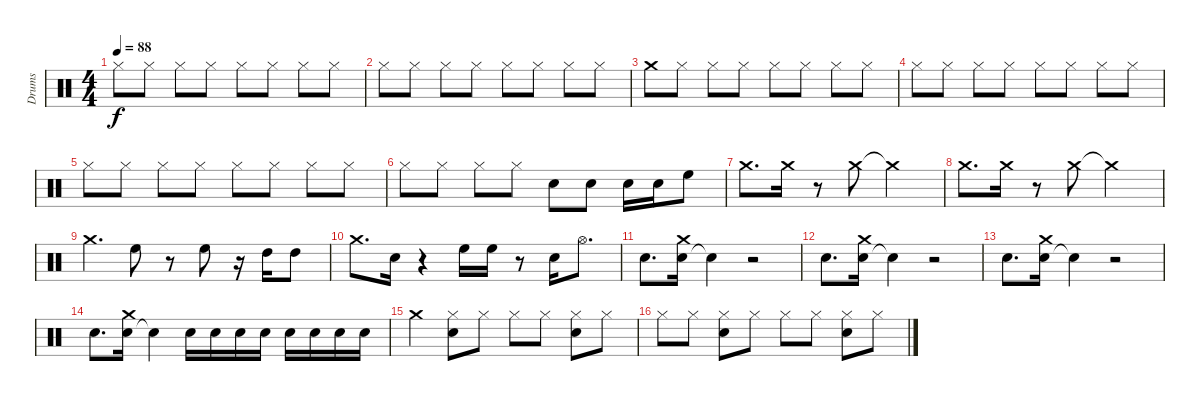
\track ("Drums" "Drums") {instrument percussion}
\staff {score}
\articulation defaults
\ts (4 4)
\tempo 88
\clef neutral
\ks c "Hi-Hat (closed)".8{dy f} "Hi-Hat (closed)".8 "Hi-Hat (closed)".8 "Hi-Hat (closed)".8 "Hi-Hat (closed)".8 "Hi-Hat (closed)".8 "Hi-Hat (closed)".8 "Hi-Hat (closed)".8
|
"Hi-Hat (closed)".8 "Hi-Hat (closed)".8 "Hi-Hat (closed)".8 "Hi-Hat (closed)".8 "Hi-Hat (closed)".8 "Hi-Hat (closed)".8 "Hi-Hat (closed)".8 "Hi-Hat (closed)".8 |
"Crash medium (hit)".8 "Hi-Hat (closed)".8 "Hi-Hat (closed)".8 "Hi-Hat (closed)".8 "Hi-Hat (closed)".8 "Hi-Hat (closed)".8 "Hi-Hat (closed)".8 "Hi-Hat (closed)".8 |
"Hi-Hat (closed)".8 "Hi-Hat (closed)".8 "Hi-Hat (closed)".8 "Hi-Hat (closed)".8 "Hi-Hat (closed)".8 "Hi-Hat (closed)".8 "Hi-Hat (closed)".8 "Hi-Hat (closed)".8 |
"Hi-Hat (closed)".8 "Hi-Hat (closed)".8 "Hi-Hat (closed)".8 "Hi-Hat (closed)".8 "Hi-Hat (closed)".8 "Hi-Hat (closed)".8 "Hi-Hat (closed)".8 "Hi-Hat (closed)".8 |
"Hi-Hat (closed)".8 "Hi-Hat (closed)".8 "Hi-Hat (closed)".8 "Hi-Hat (closed)".8 "Electric Snare (hit)".8 "Electric Snare (hit)".8 "Electric Snare (hit)".16 "Electric Snare (hit)".16 "High Floor Tom (hit)".8 |
"Crash medium (hit)".8{d} "Crash medium (hit)".16 r.8 "Crash medium (hit)".8 "Crash medium (hit)"{t}.2 |
"Crash medium (hit)".8{d} "Crash medium (hit)".16 r.8 "Crash medium (hit)".8 "Crash medium (hit)"{t}.2 |
"Crash medium (hit)".4{d} "High Floor Tom (hit)".8 r.8 "High Floor Tom (hit)".8 r.16 "High Tom (hit)".16 "High Tom (hit)".8 |
"Crash medium (hit)".8{d} "Electric Snare (hit)".16 r.4 "High Floor Tom (hit)".16 "High Floor Tom (hit)".16 r.8 "Electric Snare (hit)".16 "Hi-Hat (open)".8{d} |
"Electric Snare (hit)".8{d} ("Electric Snare (hit)" "Crash medium (hit)").16 "Snare (hit)"{t}.4 r.2 |
"Electric Snare (hit)".8{d} ("Electric Snare (hit)" "Crash medium (hit)").16 "Snare (hit)"{t}.4 r.2 |
"Electric Snare (hit)".8{d} ("Electric Snare (hit)" "Crash medium (hit)").16 "Snare (hit)"{t}.4 r.2 |
"Electric Snare (hit)".8{d} ("Electric Snare (hit)" "Crash medium (hit)").16 "Snare (hit)"{t}.4 "Electric Snare (hit)".16 "Electric Snare (hit)".16 "Electric Snare (hit)".16 "Electric Snare (hit)".16 "Electric Snare (hit)".16 "Electric Snare (hit)".16 "Electric Snare (hit)".16 "Electric Snare (hit)".16 |
"Crash medium (hit)".4 ("Hi-Hat (closed)" "Electric Snare (hit)").8 "Hi-Hat (closed)".8 "Hi-Hat (closed)".8 "Hi-Hat (closed)".8 ("Hi-Hat (closed)" "Electric Snare (hit)").8 "Hi-Hat (closed)".8 |
"Hi-Hat (closed)".8 "Hi-Hat (closed)".8 ("Hi-Hat (closed)" "Electric Snare (hit)").8 "Hi-Hat (closed)".8 "Hi-Hat (closed)".8 "Hi-Hat (closed)".8 ("Hi-Hat (closed)" "Electric Snare (hit)").8 "Hi-Hat (closed)".8
